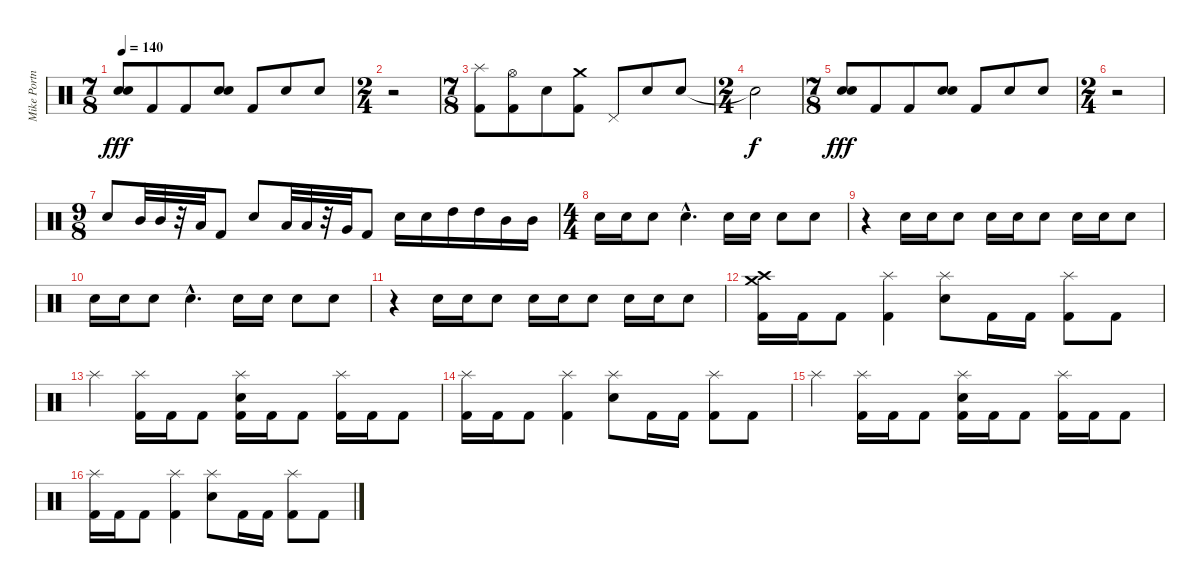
\track ("Mike Portnoy - Drum" "Mike Portn") {instrument percussion}
\staff {score}
\articulation defaults
\ts (7 8)
\tempo 140
\clef neutral
\ks c
("Snare (hit) 2" "Snare (hit) 2").8{dy fff} "Kick (hit) 2".8 "Kick (hit) 2".8 ("Snare (hit) 2" "Snare (hit) 2").8 "Kick (hit) 2".8 "Snare (hit) 2".8 "Snare (hit) 2".8 |
\ts (2 4)
r.2 |
\ts (7 8)
("Splash (hit)" "Kick (hit) 2").8 ("Hi-Hat (open)" "Kick (hit) 2").8 "Snare (hit) 2".8 ("Crash medium (hit)" "Kick (hit) 2").8 "Pedal Hi-Hat (hit)".8 "Snare (hit) 2".8 "Snare (hit) 2".8 |
\ts (2 4)
"Snare (hit)"{t}.2{dy f} |
\ts (7 8)
("Snare (hit) 2" "Snare (hit) 2").8{dy fff} "Kick (hit) 2".8 "Kick (hit) 2".8 ("Snare (hit) 2" "Snare (hit) 2").8 "Kick (hit) 2".8 "Snare (hit) 2".8 "Snare (hit) 2".8 |
\ts (2 4)
r.2 |
\ts (9 8)
"Snare (hit) 2".8 "Mid Tom (hit)".32 "Mid Tom (hit)".32 r.32 "Low Tom (hit)".32 "Kick (hit) 2".8 "Snare (hit) 2".8 "Low Tom (hit)".32 "Low Tom (hit)".32 r.32 "Very Low Tom (hit)".32 "Kick (hit) 2".8 "Snare (hit) 2".16 "Snare (hit) 2".16 "High Tom (hit)".16 "High Tom (hit)".16 "Mid Tom (hit)".16 "Mid Tom (hit)".16 |
\ts (4 4)
"Snare (hit) 2".16 "Snare (hit) 2".16 "Snare (hit) 2".8 "Snare (hit) 2"{hac}.4{d} "Snare (hit) 2".16 "Snare (hit) 2".16 "Snare (hit) 2".8 "Snare (hit) 2".8 |
r.4 "Snare (hit) 2".16 "Snare (hit) 2".16 "Snare (hit) 2".8 "Snare (hit) 2".16 "Snare (hit) 2".16 "Snare (hit) 2".8 "Snare (hit) 2".16 "Snare (hit) 2".16 "Snare (hit) 2".8 |
"Snare (hit) 2".16 "Snare (hit) 2".16 "Snare (hit) 2".8 "Snare (hit) 2"{hac}.4{d} "Snare (hit) 2".16 "Snare (hit) 2".16 "Snare (hit) 2".8 "Snare (hit) 2".8 |
r.4 "Snare (hit) 2".16 "Snare (hit) 2".16 "Snare (hit) 2".8 "Snare (hit) 2".16 "Snare (hit) 2".16 "Snare (hit) 2".8 "Snare (hit) 2".16 "Snare (hit) 2".16 "Snare (hit) 2".8 |
("Crash medium (hit)" "Crash high (hit)" "Kick (hit) 2").16 "Kick (hit) 2".16 "Kick (hit) 2".8 ("Splash (hit)" "Kick (hit) 2").4 ("Splash (hit)" "Snare (hit) 2").8 "Kick (hit) 2".16 "Kick (hit) 2".16 ("Splash (hit)" "Kick (hit) 2").8 "Kick (hit) 2".8 |
"Splash (hit)".4 ("Splash (hit)" "Kick (hit) 2").16 "Kick (hit) 2".16 "Kick (hit) 2".8 ("Splash (hit)" "Snare (hit) 2" "Kick (hit) 2").16 "Kick (hit) 2".16 "Kick (hit) 2".8 ("Splash (hit)" "Kick (hit) 2").16 "Kick (hit) 2".16 "Kick (hit) 2".8 |
("Splash (hit)" "Kick (hit) 2").16 "Kick (hit) 2".16 "Kick (hit) 2".8 ("Splash (hit)" "Kick (hit) 2").4 ("Splash (hit)" "Snare (hit) 2").8 "Kick (hit) 2".16 "Kick (hit) 2".16 ("Splash (hit)" "Kick (hit) 2").8 "Kick (hit) 2".8 |
"Splash (hit)".4 ("Splash (hit)" "Kick (hit) 2").16 "Kick (hit) 2".16 "Kick (hit) 2".8 ("Splash (hit)" "Snare (hit) 2" "Kick (hit) 2").16 "Kick (hit) 2".16 "Kick (hit) 2".8 ("Splash (hit)" "Kick (hit) 2").16 "Kick (hit) 2".16 "Kick (hit) 2".8 |
("Splash (hit)" "Kick (hit) 2").16 "Kick (hit) 2".16 "Kick (hit) 2".8 ("Splash (hit)" "Kick (hit) 2").4 ("Splash (hit)" "Snare (hit) 2").8 "Kick (hit) 2".16 "Kick (hit) 2".16 ("Splash (hit)" "Kick (hit) 2").8 "Kick (hit) 2".8
